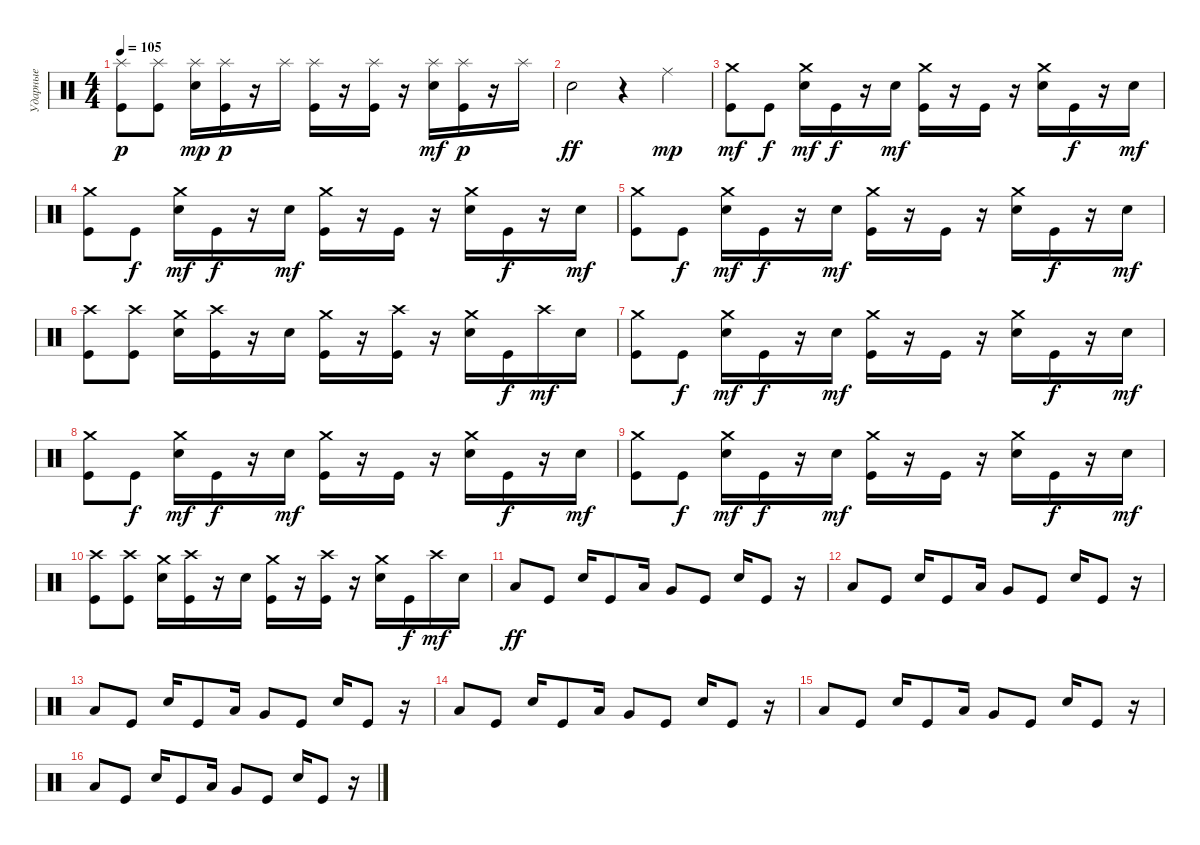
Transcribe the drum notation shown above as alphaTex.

\track ("Ударные" "Ударные") {instrument percussion}
\staff {score}
\articulation defaults
\ts (4 4)
\tempo 105
\clef neutral
\ks c
("Splash (hit)" "Kick (hit)").8{dy p} ("Splash (hit)" "Kick (hit)").8 ("Splash (hit)" "Electric Snare (hit)").16{dy mp} ("Splash (hit)" "Kick (hit)").16{dy p} r.16 "Splash (hit)".16 ("Splash (hit)" "Kick (hit)").16 r.16 ("Splash (hit)" "Kick (hit)").16 r.16 ("Splash (hit)" "Electric Snare (hit)").16{dy mf} ("Splash (hit)" "Kick (hit)").16{dy p} r.16 "Splash (hit)".16 |
"Electric Snare (hit)".2{dy ff} r.4 "Ride (middle)".4{dy mp} |
("Crash medium (hit)" "Kick (hit)").8{dy mf} "Kick (hit)".8{dy f} ("Crash medium (hit)" "Electric Snare (hit)").16{dy mf} "Kick (hit)".16{dy f} r.16 "Electric Snare (hit)".16{dy mf} ("Crash medium (hit)" "Kick (hit)").16 r.16 "Kick (hit)".16 r.16 ("Crash medium (hit)" "Electric Snare (hit)").16 "Kick (hit)".16{dy f} r.16 "Electric Snare (hit)".16{dy mf} |
("Crash medium (hit)" "Kick (hit)").8 "Kick (hit)".8{dy f} ("Crash medium (hit)" "Electric Snare (hit)").16{dy mf} "Kick (hit)".16{dy f} r.16 "Electric Snare (hit)".16{dy mf} ("Crash medium (hit)" "Kick (hit)").16 r.16 "Kick (hit)".16 r.16 ("Crash medium (hit)" "Electric Snare (hit)").16 "Kick (hit)".16{dy f} r.16 "Electric Snare (hit)".16{dy mf} |
("Crash medium (hit)" "Kick (hit)").8 "Kick (hit)".8{dy f} ("Crash medium (hit)" "Electric Snare (hit)").16{dy mf} "Kick (hit)".16{dy f} r.16 "Electric Snare (hit)".16{dy mf} ("Crash medium (hit)" "Kick (hit)").16 r.16 "Kick (hit)".16 r.16 ("Crash medium (hit)" "Electric Snare (hit)").16 "Kick (hit)".16{dy f} r.16 "Electric Snare (hit)".16{dy mf} |
("Crash high (hit)" "Kick (hit)").8 ("Crash high (hit)" "Kick (hit)").8 ("Crash medium (hit)" "Electric Snare (hit)").16 ("Crash high (hit)" "Kick (hit)").16 r.16 "Electric Snare (hit)".16 ("Crash medium (hit)" "Kick (hit)").16 r.16 ("Crash high (hit)" "Kick (hit)").16 r.16 ("Crash medium (hit)" "Electric Snare (hit)").16 "Kick (hit)".16{dy f} "Crash high (hit)".16{dy mf} "Electric Snare (hit)".16 |
("Crash medium (hit)" "Kick (hit)").8 "Kick (hit)".8{dy f} ("Crash medium (hit)" "Electric Snare (hit)").16{dy mf} "Kick (hit)".16{dy f} r.16 "Electric Snare (hit)".16{dy mf} ("Crash medium (hit)" "Kick (hit)").16 r.16 "Kick (hit)".16 r.16 ("Crash medium (hit)" "Electric Snare (hit)").16 "Kick (hit)".16{dy f} r.16 "Electric Snare (hit)".16{dy mf} |
("Crash medium (hit)" "Kick (hit)").8 "Kick (hit)".8{dy f} ("Crash medium (hit)" "Electric Snare (hit)").16{dy mf} "Kick (hit)".16{dy f} r.16 "Electric Snare (hit)".16{dy mf} ("Crash medium (hit)" "Kick (hit)").16 r.16 "Kick (hit)".16 r.16 ("Crash medium (hit)" "Electric Snare (hit)").16 "Kick (hit)".16{dy f} r.16 "Electric Snare (hit)".16{dy mf} |
("Crash medium (hit)" "Kick (hit)").8 "Kick (hit)".8{dy f} ("Crash medium (hit)" "Electric Snare (hit)").16{dy mf} "Kick (hit)".16{dy f} r.16 "Electric Snare (hit)".16{dy mf} ("Crash medium (hit)" "Kick (hit)").16 r.16 "Kick (hit)".16 r.16 ("Crash medium (hit)" "Electric Snare (hit)").16 "Kick (hit)".16{dy f} r.16 "Electric Snare (hit)".16{dy mf} |
("Crash high (hit)" "Kick (hit)").8 ("Crash high (hit)" "Kick (hit)").8 ("Crash medium (hit)" "Electric Snare (hit)").16 ("Crash high (hit)" "Kick (hit)").16 r.16 "Electric Snare (hit)".16 ("Crash medium (hit)" "Kick (hit)").16 r.16 ("Crash high (hit)" "Kick (hit)").16 r.16 ("Crash medium (hit)" "Electric Snare (hit)").16 "Kick (hit)".16{dy f} "Crash high (hit)".16{dy mf} "Electric Snare (hit)".16 |
"Low Tom (hit)".8{dy ff} "Kick (hit)".8 "Electric Snare (hit)".16 "Kick (hit)".8 "Low Tom (hit)".16 "Very Low Tom (hit)".8 "Kick (hit)".8 "Electric Snare (hit)".16 "Kick (hit)".8 r.16 |
"Low Tom (hit)".8 "Kick (hit)".8 "Electric Snare (hit)".16 "Kick (hit)".8 "Low Tom (hit)".16 "Very Low Tom (hit)".8 "Kick (hit)".8 "Electric Snare (hit)".16 "Kick (hit)".8 r.16 |
"Low Tom (hit)".8 "Kick (hit)".8 "Electric Snare (hit)".16 "Kick (hit)".8 "Low Tom (hit)".16 "Very Low Tom (hit)".8 "Kick (hit)".8 "Electric Snare (hit)".16 "Kick (hit)".8 r.16 |
"Low Tom (hit)".8 "Kick (hit)".8 "Electric Snare (hit)".16 "Kick (hit)".8 "Low Tom (hit)".16 "Very Low Tom (hit)".8 "Kick (hit)".8 "Electric Snare (hit)".16 "Kick (hit)".8 r.16 |
"Low Tom (hit)".8 "Kick (hit)".8 "Electric Snare (hit)".16 "Kick (hit)".8 "Low Tom (hit)".16 "Very Low Tom (hit)".8 "Kick (hit)".8 "Electric Snare (hit)".16 "Kick (hit)".8 r.16 |
"Low Tom (hit)".8 "Kick (hit)".8 "Electric Snare (hit)".16 "Kick (hit)".8 "Low Tom (hit)".16 "Very Low Tom (hit)".8 "Kick (hit)".8 "Electric Snare (hit)".16 "Kick (hit)".8 r.16
